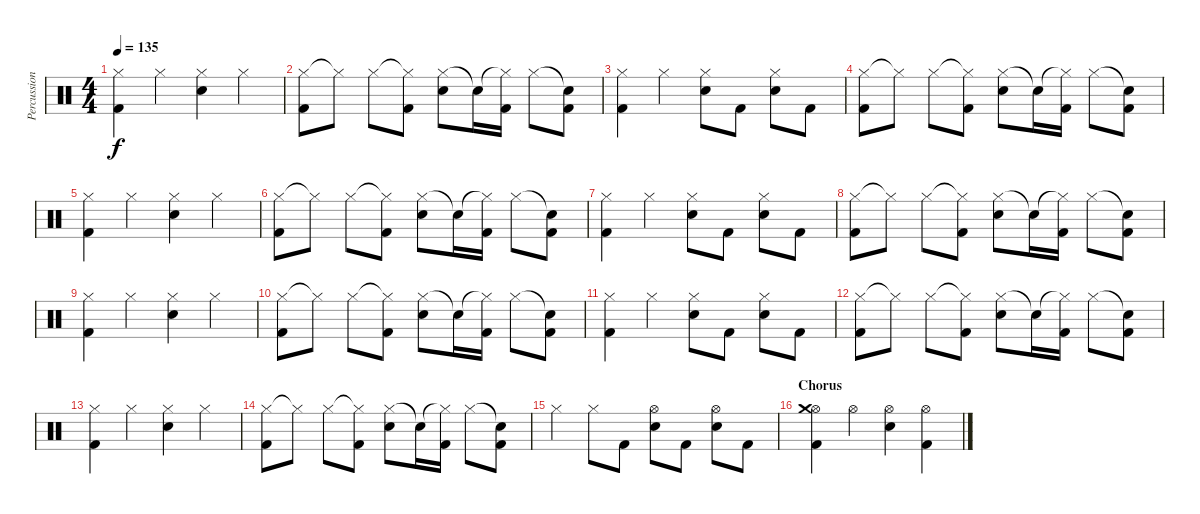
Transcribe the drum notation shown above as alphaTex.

\track ("Percussion" "Percussion") {instrument percussion}
\staff {score}
\articulation defaults
\ts (4 4)
\tempo 135
\clef neutral
\ks c
("Hi-Hat (closed)" "Kick (hit) 2").4{dy f} "Hi-Hat (closed)".4 ("Hi-Hat (closed)" "Electric Snare (hit)").4 "Hi-Hat (closed)".4 |
("Hi-Hat (closed)" "Kick (hit) 2").8 "Hi-Hat (closed)"{t}.8 "Hi-Hat (closed)".8 ("Hi-Hat (closed)"{t} "Kick (hit) 2").8 ("Hi-Hat (closed)" "Electric Snare (hit)").8 "Snare (hit)"{t}.16 ("Hi-Hat (closed)"{t} "Kick (hit) 2").16 "Hi-Hat (closed)".8 ("Snare (hit)"{t} "Kick (hit) 2").8 |
("Hi-Hat (closed)" "Kick (hit) 2").4 "Hi-Hat (closed)".4 ("Hi-Hat (closed)" "Electric Snare (hit)").8 "Kick (hit) 2".8 ("Hi-Hat (closed)" "Electric Snare (hit)").8 "Kick (hit) 2".8 |
("Hi-Hat (closed)" "Kick (hit) 2").8 "Hi-Hat (closed)"{t}.8 "Hi-Hat (closed)".8 ("Hi-Hat (closed)"{t} "Kick (hit) 2").8 ("Hi-Hat (closed)" "Electric Snare (hit)").8 "Snare (hit)"{t}.16 ("Hi-Hat (closed)"{t} "Kick (hit) 2").16 "Hi-Hat (closed)".8 ("Snare (hit)"{t} "Kick (hit) 2").8 |
("Hi-Hat (closed)" "Kick (hit) 2").4 "Hi-Hat (closed)".4 ("Hi-Hat (closed)" "Electric Snare (hit)").4 "Hi-Hat (closed)".4 |
("Hi-Hat (closed)" "Kick (hit) 2").8 "Hi-Hat (closed)"{t}.8 "Hi-Hat (closed)".8 ("Hi-Hat (closed)"{t} "Kick (hit) 2").8 ("Hi-Hat (closed)" "Electric Snare (hit)").8 "Snare (hit)"{t}.16 ("Hi-Hat (closed)"{t} "Kick (hit) 2").16 "Hi-Hat (closed)".8 ("Snare (hit)"{t} "Kick (hit) 2").8 |
("Hi-Hat (closed)" "Kick (hit) 2").4 "Hi-Hat (closed)".4 ("Hi-Hat (closed)" "Electric Snare (hit)").8 "Kick (hit) 2".8 ("Hi-Hat (closed)" "Electric Snare (hit)").8 "Kick (hit) 2".8 |
("Hi-Hat (closed)" "Kick (hit) 2").8 "Hi-Hat (closed)"{t}.8 "Hi-Hat (closed)".8 ("Hi-Hat (closed)"{t} "Kick (hit) 2").8 ("Hi-Hat (closed)" "Electric Snare (hit)").8 "Snare (hit)"{t}.16 ("Hi-Hat (closed)"{t} "Kick (hit) 2").16 "Hi-Hat (closed)".8 ("Snare (hit)"{t} "Kick (hit) 2").8 |
("Hi-Hat (closed)" "Kick (hit) 2").4 "Hi-Hat (closed)".4 ("Hi-Hat (closed)" "Electric Snare (hit)").4 "Hi-Hat (closed)".4 |
("Hi-Hat (closed)" "Kick (hit) 2").8 "Hi-Hat (closed)"{t}.8 "Hi-Hat (closed)".8 ("Hi-Hat (closed)"{t} "Kick (hit) 2").8 ("Hi-Hat (closed)" "Electric Snare (hit)").8 "Snare (hit)"{t}.16 ("Hi-Hat (closed)"{t} "Kick (hit) 2").16 "Hi-Hat (closed)".8 ("Snare (hit)"{t} "Kick (hit) 2").8 |
("Hi-Hat (closed)" "Kick (hit) 2").4 "Hi-Hat (closed)".4 ("Hi-Hat (closed)" "Electric Snare (hit)").8 "Kick (hit) 2".8 ("Hi-Hat (closed)" "Electric Snare (hit)").8 "Kick (hit) 2".8 |
("Hi-Hat (closed)" "Kick (hit) 2").8 "Hi-Hat (closed)"{t}.8 "Hi-Hat (closed)".8 ("Hi-Hat (closed)"{t} "Kick (hit) 2").8 ("Hi-Hat (closed)" "Electric Snare (hit)").8 "Snare (hit)"{t}.16 ("Hi-Hat (closed)"{t} "Kick (hit) 2").16 "Hi-Hat (closed)".8 ("Snare (hit)"{t} "Kick (hit) 2").8 |
("Hi-Hat (closed)" "Kick (hit) 2").4 "Hi-Hat (closed)".4 ("Hi-Hat (closed)" "Electric Snare (hit)").4 "Hi-Hat (closed)".4 |
("Hi-Hat (closed)" "Kick (hit) 2").8 "Hi-Hat (closed)"{t}.8 "Hi-Hat (closed)".8 ("Hi-Hat (closed)"{t} "Kick (hit) 2").8 ("Hi-Hat (closed)" "Electric Snare (hit)").8 "Snare (hit)"{t}.16 ("Hi-Hat (closed)"{t} "Kick (hit) 2").16 "Hi-Hat (closed)".8 ("Snare (hit)"{t} "Kick (hit) 2").8 |
"Hi-Hat (closed)".4 "Hi-Hat (closed)".8 "Kick (hit) 2".8 ("Hi-Hat (open)" "Electric Snare (hit)").8 "Kick (hit) 2".8 ("Hi-Hat (open)" "Electric Snare (hit)").8 "Kick (hit) 2".8 |
\section ("" "Chorus")
("Hi-Hat (open)" "Kick (hit) 2" "Crash medium (hit)").4 "Hi-Hat (open)".4 ("Hi-Hat (open)" "Electric Snare (hit)").4 ("Hi-Hat (open)" "Kick (hit) 2").4
